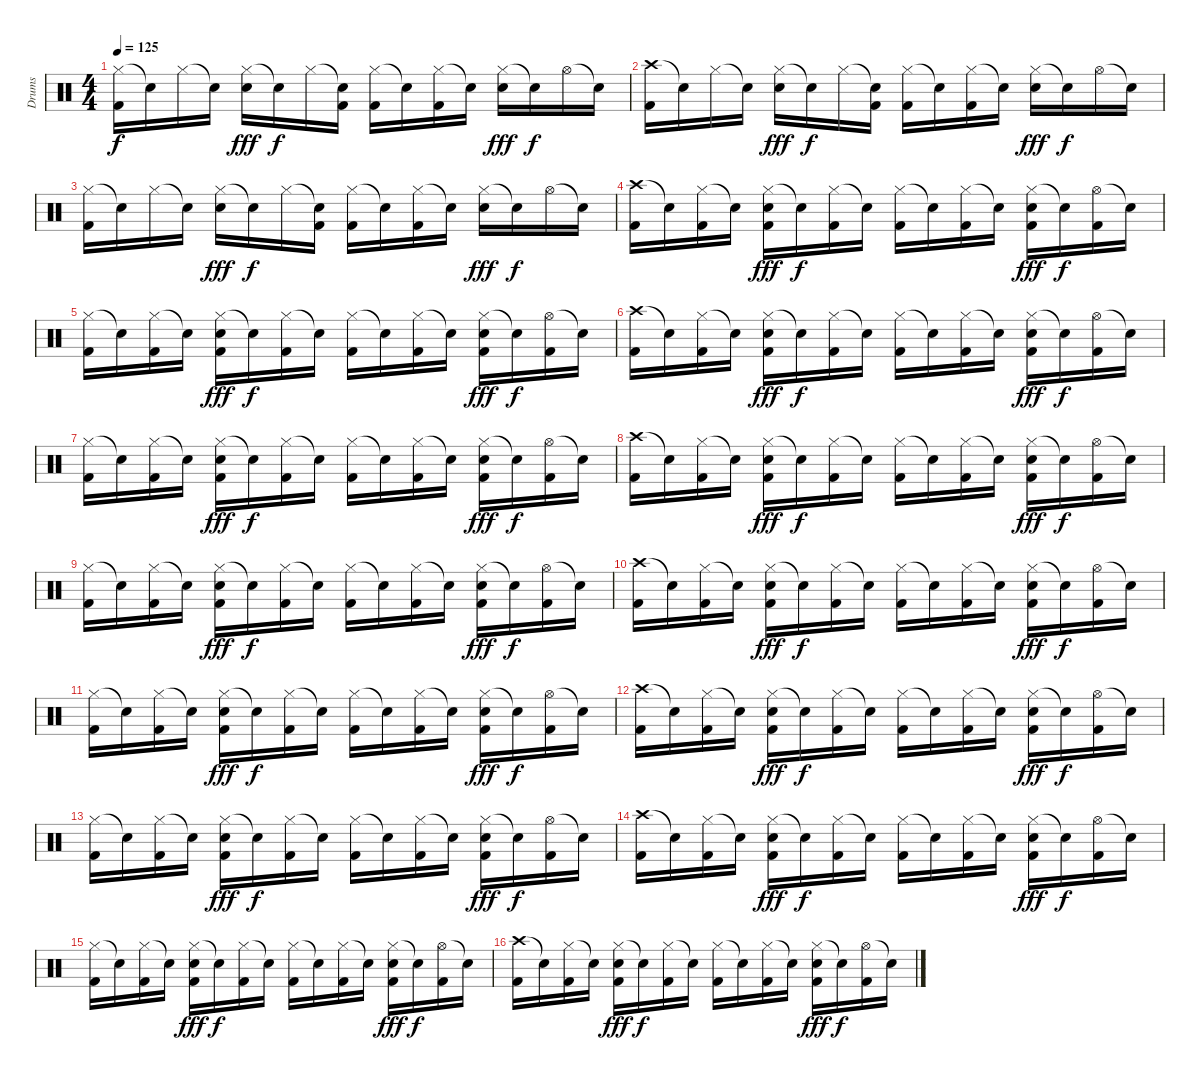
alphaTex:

\track ("Drums" "Drums") {instrument percussion}
\staff {score}
\articulation defaults
\ts (4 4)
\tempo 125
\clef neutral
\ks c
("Hi-Hat (closed)" "Kick (hit) 2").16{dy f} "Snare (hit)"{t}.16 "Hi-Hat (closed)".16 "Snare (hit)"{t}.16 ("Hi-Hat (closed)" "Electric Snare (hit)").16{dy fff} "Snare (hit)"{t}.16{dy f} "Hi-Hat (closed)".16 ("Snare (hit)"{t} "Kick (hit) 2").16 ("Hi-Hat (closed)" "Kick (hit) 2").16 "Snare (hit)"{t}.16 ("Hi-Hat (closed)" "Kick (hit) 2").16 "Snare (hit)"{t}.16 ("Hi-Hat (closed)" "Electric Snare (hit)").16{dy fff} "Snare (hit)"{t}.16{dy f} "Hi-Hat (open)".16 "Snare (hit)"{t}.16 |
("Crash high (hit)" "Kick (hit) 2").16 "Snare (hit)"{t}.16 "Hi-Hat (closed)".16 "Snare (hit)"{t}.16 ("Hi-Hat (closed)" "Electric Snare (hit)").16{dy fff} "Snare (hit)"{t}.16{dy f} "Hi-Hat (closed)".16 ("Snare (hit)"{t} "Kick (hit) 2").16 ("Hi-Hat (closed)" "Kick (hit) 2").16 "Snare (hit)"{t}.16 ("Hi-Hat (closed)" "Kick (hit) 2").16 "Snare (hit)"{t}.16 ("Hi-Hat (closed)" "Electric Snare (hit)").16{dy fff} "Snare (hit)"{t}.16{dy f} "Hi-Hat (open)".16 "Snare (hit)"{t}.16 |
("Hi-Hat (closed)" "Kick (hit) 2").16 "Snare (hit)"{t}.16 "Hi-Hat (closed)".16 "Snare (hit)"{t}.16 ("Hi-Hat (closed)" "Electric Snare (hit)").16{dy fff} "Snare (hit)"{t}.16{dy f} "Hi-Hat (closed)".16 ("Snare (hit)"{t} "Kick (hit) 2").16 ("Hi-Hat (closed)" "Kick (hit) 2").16 "Snare (hit)"{t}.16 ("Hi-Hat (closed)" "Kick (hit) 2").16 "Snare (hit)"{t}.16 ("Hi-Hat (closed)" "Electric Snare (hit)").16{dy fff} "Snare (hit)"{t}.16{dy f} "Hi-Hat (open)".16 "Snare (hit)"{t}.16 |
("Crash high (hit)" "Kick (hit) 2").16 "Snare (hit)"{t}.16 ("Hi-Hat (closed)" "Kick (hit) 2").16 "Snare (hit)"{t}.16 ("Hi-Hat (closed)" "Electric Snare (hit)" "Kick (hit) 2").16{dy fff} "Snare (hit)"{t}.16{dy f} ("Hi-Hat (closed)" "Kick (hit) 2").16 "Snare (hit)"{t}.16 ("Hi-Hat (closed)" "Kick (hit) 2").16 "Snare (hit)"{t}.16 ("Hi-Hat (closed)" "Kick (hit) 2").16 "Snare (hit)"{t}.16 ("Hi-Hat (closed)" "Electric Snare (hit)" "Kick (hit) 2").16{dy fff} "Snare (hit)"{t}.16{dy f} ("Hi-Hat (open)" "Kick (hit) 2").16 "Snare (hit)"{t}.16 |
("Hi-Hat (closed)" "Kick (hit) 2").16 "Snare (hit)"{t}.16 ("Hi-Hat (closed)" "Kick (hit) 2").16 "Snare (hit)"{t}.16 ("Hi-Hat (closed)" "Electric Snare (hit)" "Kick (hit) 2").16{dy fff} "Snare (hit)"{t}.16{dy f} ("Hi-Hat (closed)" "Kick (hit) 2").16 "Snare (hit)"{t}.16 ("Hi-Hat (closed)" "Kick (hit) 2").16 "Snare (hit)"{t}.16 ("Hi-Hat (closed)" "Kick (hit) 2").16 "Snare (hit)"{t}.16 ("Hi-Hat (closed)" "Electric Snare (hit)" "Kick (hit) 2").16{dy fff} "Snare (hit)"{t}.16{dy f} ("Hi-Hat (open)" "Kick (hit) 2").16 "Snare (hit)"{t}.16 |
("Crash high (hit)" "Kick (hit) 2").16 "Snare (hit)"{t}.16 ("Hi-Hat (closed)" "Kick (hit) 2").16 "Snare (hit)"{t}.16 ("Hi-Hat (closed)" "Electric Snare (hit)" "Kick (hit) 2").16{dy fff} "Snare (hit)"{t}.16{dy f} ("Hi-Hat (closed)" "Kick (hit) 2").16 "Snare (hit)"{t}.16 ("Hi-Hat (closed)" "Kick (hit) 2").16 "Snare (hit)"{t}.16 ("Hi-Hat (closed)" "Kick (hit) 2").16 "Snare (hit)"{t}.16 ("Hi-Hat (closed)" "Electric Snare (hit)" "Kick (hit) 2").16{dy fff} "Snare (hit)"{t}.16{dy f} ("Hi-Hat (open)" "Kick (hit) 2").16 "Snare (hit)"{t}.16 |
("Hi-Hat (closed)" "Kick (hit) 2").16 "Snare (hit)"{t}.16 ("Hi-Hat (closed)" "Kick (hit) 2").16 "Snare (hit)"{t}.16 ("Hi-Hat (closed)" "Electric Snare (hit)" "Kick (hit) 2").16{dy fff} "Snare (hit)"{t}.16{dy f} ("Hi-Hat (closed)" "Kick (hit) 2").16 "Snare (hit)"{t}.16 ("Hi-Hat (closed)" "Kick (hit) 2").16 "Snare (hit)"{t}.16 ("Hi-Hat (closed)" "Kick (hit) 2").16 "Snare (hit)"{t}.16 ("Hi-Hat (closed)" "Electric Snare (hit)" "Kick (hit) 2").16{dy fff} "Snare (hit)"{t}.16{dy f} ("Hi-Hat (open)" "Kick (hit) 2").16 "Snare (hit)"{t}.16 |
("Crash high (hit)" "Kick (hit) 2").16 "Snare (hit)"{t}.16 ("Hi-Hat (closed)" "Kick (hit) 2").16 "Snare (hit)"{t}.16 ("Hi-Hat (closed)" "Electric Snare (hit)" "Kick (hit) 2").16{dy fff} "Snare (hit)"{t}.16{dy f} ("Hi-Hat (closed)" "Kick (hit) 2").16 "Snare (hit)"{t}.16 ("Hi-Hat (closed)" "Kick (hit) 2").16 "Snare (hit)"{t}.16 ("Hi-Hat (closed)" "Kick (hit) 2").16 "Snare (hit)"{t}.16 ("Hi-Hat (closed)" "Electric Snare (hit)" "Kick (hit) 2").16{dy fff} "Snare (hit)"{t}.16{dy f} ("Hi-Hat (open)" "Kick (hit) 2").16 "Snare (hit)"{t}.16 |
("Hi-Hat (closed)" "Kick (hit) 2").16 "Snare (hit)"{t}.16 ("Hi-Hat (closed)" "Kick (hit) 2").16 "Snare (hit)"{t}.16 ("Hi-Hat (closed)" "Electric Snare (hit)" "Kick (hit) 2").16{dy fff} "Snare (hit)"{t}.16{dy f} ("Hi-Hat (closed)" "Kick (hit) 2").16 "Snare (hit)"{t}.16 ("Hi-Hat (closed)" "Kick (hit) 2").16 "Snare (hit)"{t}.16 ("Hi-Hat (closed)" "Kick (hit) 2").16 "Snare (hit)"{t}.16 ("Hi-Hat (closed)" "Electric Snare (hit)" "Kick (hit) 2").16{dy fff} "Snare (hit)"{t}.16{dy f} ("Hi-Hat (open)" "Kick (hit) 2").16 "Snare (hit)"{t}.16 |
("Crash high (hit)" "Kick (hit) 2").16 "Snare (hit)"{t}.16 ("Hi-Hat (closed)" "Kick (hit) 2").16 "Snare (hit)"{t}.16 ("Hi-Hat (closed)" "Electric Snare (hit)" "Kick (hit) 2").16{dy fff} "Snare (hit)"{t}.16{dy f} ("Hi-Hat (closed)" "Kick (hit) 2").16 "Snare (hit)"{t}.16 ("Hi-Hat (closed)" "Kick (hit) 2").16 "Snare (hit)"{t}.16 ("Hi-Hat (closed)" "Kick (hit) 2").16 "Snare (hit)"{t}.16 ("Hi-Hat (closed)" "Electric Snare (hit)" "Kick (hit) 2").16{dy fff} "Snare (hit)"{t}.16{dy f} ("Hi-Hat (open)" "Kick (hit) 2").16 "Snare (hit)"{t}.16 |
("Hi-Hat (closed)" "Kick (hit) 2").16 "Snare (hit)"{t}.16 ("Hi-Hat (closed)" "Kick (hit) 2").16 "Snare (hit)"{t}.16 ("Hi-Hat (closed)" "Electric Snare (hit)" "Kick (hit) 2").16{dy fff} "Snare (hit)"{t}.16{dy f} ("Hi-Hat (closed)" "Kick (hit) 2").16 "Snare (hit)"{t}.16 ("Hi-Hat (closed)" "Kick (hit) 2").16 "Snare (hit)"{t}.16 ("Hi-Hat (closed)" "Kick (hit) 2").16 "Snare (hit)"{t}.16 ("Hi-Hat (closed)" "Electric Snare (hit)" "Kick (hit) 2").16{dy fff} "Snare (hit)"{t}.16{dy f} ("Hi-Hat (open)" "Kick (hit) 2").16 "Snare (hit)"{t}.16 |
("Crash high (hit)" "Kick (hit) 2").16 "Snare (hit)"{t}.16 ("Hi-Hat (closed)" "Kick (hit) 2").16 "Snare (hit)"{t}.16 ("Hi-Hat (closed)" "Electric Snare (hit)" "Kick (hit) 2").16{dy fff} "Snare (hit)"{t}.16{dy f} ("Hi-Hat (closed)" "Kick (hit) 2").16 "Snare (hit)"{t}.16 ("Hi-Hat (closed)" "Kick (hit) 2").16 "Snare (hit)"{t}.16 ("Hi-Hat (closed)" "Kick (hit) 2").16 "Snare (hit)"{t}.16 ("Hi-Hat (closed)" "Electric Snare (hit)" "Kick (hit) 2").16{dy fff} "Snare (hit)"{t}.16{dy f} ("Hi-Hat (open)" "Kick (hit) 2").16 "Snare (hit)"{t}.16 |
("Hi-Hat (closed)" "Kick (hit) 2").16 "Snare (hit)"{t}.16 ("Hi-Hat (closed)" "Kick (hit) 2").16 "Snare (hit)"{t}.16 ("Hi-Hat (closed)" "Electric Snare (hit)" "Kick (hit) 2").16{dy fff} "Snare (hit)"{t}.16{dy f} ("Hi-Hat (closed)" "Kick (hit) 2").16 "Snare (hit)"{t}.16 ("Hi-Hat (closed)" "Kick (hit) 2").16 "Snare (hit)"{t}.16 ("Hi-Hat (closed)" "Kick (hit) 2").16 "Snare (hit)"{t}.16 ("Hi-Hat (closed)" "Electric Snare (hit)" "Kick (hit) 2").16{dy fff} "Snare (hit)"{t}.16{dy f} ("Hi-Hat (open)" "Kick (hit) 2").16 "Snare (hit)"{t}.16 |
("Crash high (hit)" "Kick (hit) 2").16 "Snare (hit)"{t}.16 ("Hi-Hat (closed)" "Kick (hit) 2").16 "Snare (hit)"{t}.16 ("Hi-Hat (closed)" "Electric Snare (hit)" "Kick (hit) 2").16{dy fff} "Snare (hit)"{t}.16{dy f} ("Hi-Hat (closed)" "Kick (hit) 2").16 "Snare (hit)"{t}.16 ("Hi-Hat (closed)" "Kick (hit) 2").16 "Snare (hit)"{t}.16 ("Hi-Hat (closed)" "Kick (hit) 2").16 "Snare (hit)"{t}.16 ("Hi-Hat (closed)" "Electric Snare (hit)" "Kick (hit) 2").16{dy fff} "Snare (hit)"{t}.16{dy f} ("Hi-Hat (open)" "Kick (hit) 2").16 "Snare (hit)"{t}.16 |
("Hi-Hat (closed)" "Kick (hit) 2").16 "Snare (hit)"{t}.16 ("Hi-Hat (closed)" "Kick (hit) 2").16 "Snare (hit)"{t}.16 ("Hi-Hat (closed)" "Electric Snare (hit)" "Kick (hit) 2").16{dy fff} "Snare (hit)"{t}.16{dy f} ("Hi-Hat (closed)" "Kick (hit) 2").16 "Snare (hit)"{t}.16 ("Hi-Hat (closed)" "Kick (hit) 2").16 "Snare (hit)"{t}.16 ("Hi-Hat (closed)" "Kick (hit) 2").16 "Snare (hit)"{t}.16 ("Hi-Hat (closed)" "Electric Snare (hit)" "Kick (hit) 2").16{dy fff} "Snare (hit)"{t}.16{dy f} ("Hi-Hat (open)" "Kick (hit) 2").16 "Snare (hit)"{t}.16 |
("Crash high (hit)" "Kick (hit) 2").16 "Snare (hit)"{t}.16 ("Hi-Hat (closed)" "Kick (hit) 2").16 "Snare (hit)"{t}.16 ("Hi-Hat (closed)" "Electric Snare (hit)" "Kick (hit) 2").16{dy fff} "Snare (hit)"{t}.16{dy f} ("Hi-Hat (closed)" "Kick (hit) 2").16 "Snare (hit)"{t}.16 ("Hi-Hat (closed)" "Kick (hit) 2").16 "Snare (hit)"{t}.16 ("Hi-Hat (closed)" "Kick (hit) 2").16 "Snare (hit)"{t}.16 ("Hi-Hat (closed)" "Electric Snare (hit)" "Kick (hit) 2").16{dy fff} "Snare (hit)"{t}.16{dy f} ("Hi-Hat (open)" "Kick (hit) 2").16 "Snare (hit)"{t}.16
